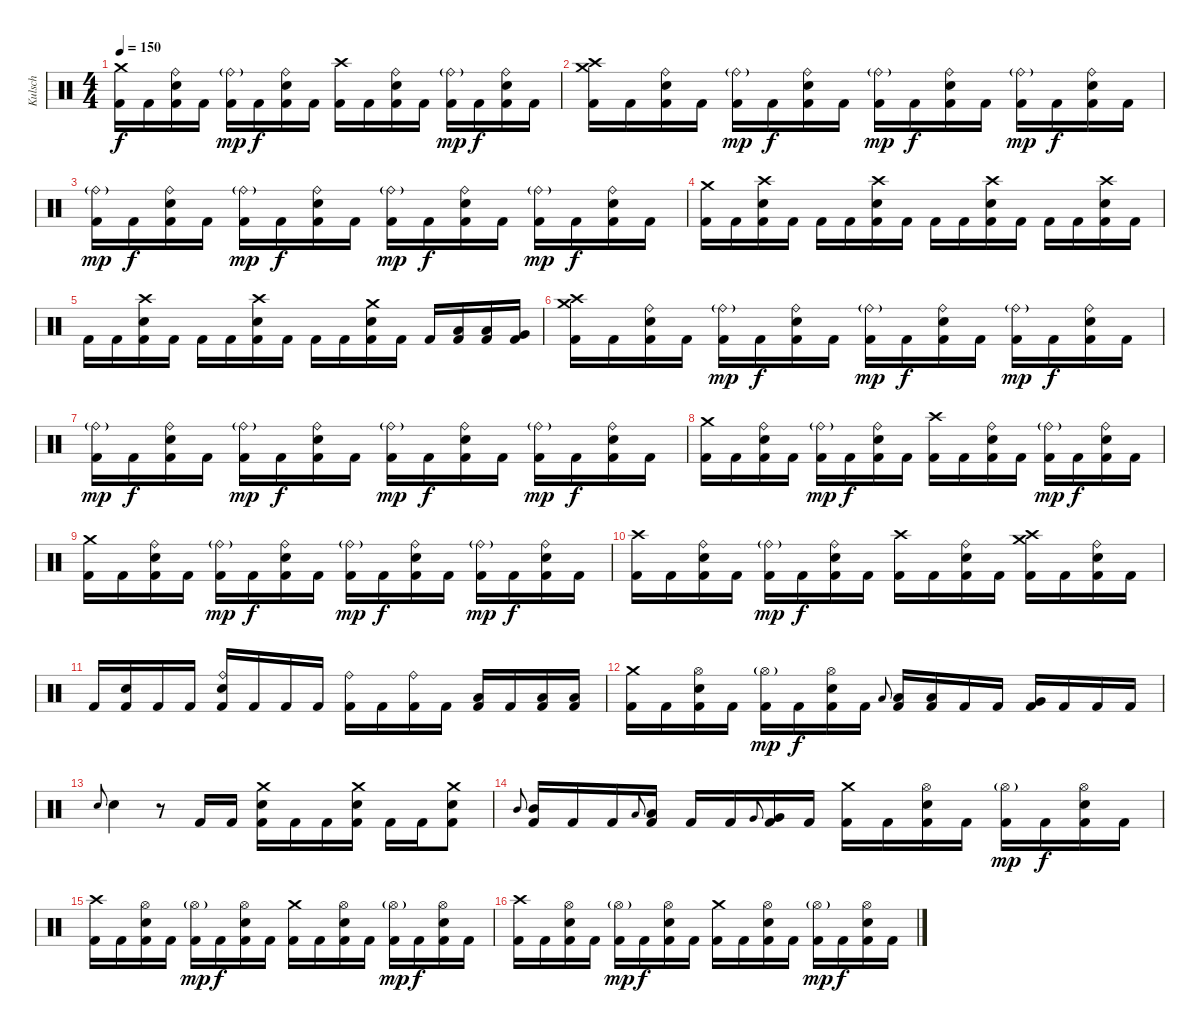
\track ("Kulsch" "Kulsch") {instrument percussion}
\staff {score}
\articulation defaults
\ts (4 4)
\tempo 150
\clef neutral
\ks c
("Crash medium (hit)" "Kick (hit) 2").16{dy f} "Kick (hit) 2".16 ("Ride (bell)" "Snare (hit) 2" "Kick (hit) 2").16 "Kick (hit) 2".16 ("Ride (bell)"{g} "Kick (hit) 2").16{dy mp} "Kick (hit) 2".16{dy f} ("Ride (bell)" "Snare (hit) 2" "Kick (hit) 2").16 "Kick (hit) 2".16 ("Crash high (hit)" "Kick (hit) 2").16 "Kick (hit) 2".16 ("Ride (bell)" "Snare (hit) 2" "Kick (hit) 2").16 "Kick (hit) 2".16 ("Ride (bell)"{g} "Kick (hit) 2").16{dy mp} "Kick (hit) 2".16{dy f} ("Ride (bell)" "Snare (hit) 2" "Kick (hit) 2").16 "Kick (hit) 2".16 |
("Crash medium (hit)" "Crash high (hit)" "Kick (hit) 2").16 "Kick (hit) 2".16 ("Ride (bell)" "Snare (hit) 2" "Kick (hit) 2").16 "Kick (hit) 2".16 ("Ride (bell)"{g} "Kick (hit) 2").16{dy mp} "Kick (hit) 2".16{dy f} ("Ride (bell)" "Snare (hit) 2" "Kick (hit) 2").16 "Kick (hit) 2".16 ("Ride (bell)"{g} "Kick (hit) 2").16{dy mp} "Kick (hit) 2".16{dy f} ("Ride (bell)" "Snare (hit) 2" "Kick (hit) 2").16 "Kick (hit) 2".16 ("Ride (bell)"{g} "Kick (hit) 2").16{dy mp} "Kick (hit) 2".16{dy f} ("Ride (bell)" "Snare (hit) 2" "Kick (hit) 2").16 "Kick (hit) 2".16 |
("Ride (bell)"{g} "Kick (hit) 2").16{dy mp} "Kick (hit) 2".16{dy f} ("Ride (bell)" "Snare (hit) 2" "Kick (hit) 2").16 "Kick (hit) 2".16 ("Ride (bell)"{g} "Kick (hit) 2").16{dy mp} "Kick (hit) 2".16{dy f} ("Ride (bell)" "Snare (hit) 2" "Kick (hit) 2").16 "Kick (hit) 2".16 ("Ride (bell)"{g} "Kick (hit) 2").16{dy mp} "Kick (hit) 2".16{dy f} ("Ride (bell)" "Snare (hit) 2" "Kick (hit) 2").16 "Kick (hit) 2".16 ("Ride (bell)"{g} "Kick (hit) 2").16{dy mp} "Kick (hit) 2".16{dy f} ("Ride (bell)" "Snare (hit) 2" "Kick (hit) 2").16 "Kick (hit) 2".16 |
("Crash medium (hit)" "Kick (hit) 2").16 "Kick (hit) 2".16 ("Crash high (hit)" "Snare (hit) 2" "Kick (hit) 2").16 "Kick (hit) 2".16 "Kick (hit) 2".16 "Kick (hit) 2".16 ("Crash high (hit)" "Snare (hit) 2" "Kick (hit) 2").16 "Kick (hit) 2".16 "Kick (hit) 2".16 "Kick (hit) 2".16 ("Crash high (hit)" "Snare (hit) 2" "Kick (hit) 2").16 "Kick (hit) 2".16 "Kick (hit) 2".16 "Kick (hit) 2".16 ("Crash high (hit)" "Snare (hit) 2" "Kick (hit) 2").16 "Kick (hit) 2".16 |
"Kick (hit) 2".16 "Kick (hit) 2".16 ("Crash high (hit)" "Snare (hit) 2" "Kick (hit) 2").16 "Kick (hit) 2".16 "Kick (hit) 2".16 "Kick (hit) 2".16 ("Crash high (hit)" "Snare (hit) 2" "Kick (hit) 2").16 "Kick (hit) 2".16 "Kick (hit) 2".16 "Kick (hit) 2".16 ("Crash medium (hit)" "Snare (hit) 2" "Kick (hit) 2").16 "Kick (hit) 2".16 "Kick (hit) 2".16 ("Low Tom (hit)" "Kick (hit) 2").16 ("Low Tom (hit)" "Kick (hit) 2").16 ("Very Low Tom (hit)" "Kick (hit) 2").16 |
("Crash medium (hit)" "Crash high (hit)" "Kick (hit) 2").16 "Kick (hit) 2".16 ("Ride (bell)" "Snare (hit) 2" "Kick (hit) 2").16 "Kick (hit) 2".16 ("Ride (bell)"{g} "Kick (hit) 2").16{dy mp} "Kick (hit) 2".16{dy f} ("Ride (bell)" "Snare (hit) 2" "Kick (hit) 2").16 "Kick (hit) 2".16 ("Ride (bell)"{g} "Kick (hit) 2").16{dy mp} "Kick (hit) 2".16{dy f} ("Ride (bell)" "Snare (hit) 2" "Kick (hit) 2").16 "Kick (hit) 2".16 ("Ride (bell)"{g} "Kick (hit) 2").16{dy mp} "Kick (hit) 2".16{dy f} ("Ride (bell)" "Snare (hit) 2" "Kick (hit) 2").16 "Kick (hit) 2".16 |
("Ride (bell)"{g} "Kick (hit) 2").16{dy mp} "Kick (hit) 2".16{dy f} ("Ride (bell)" "Snare (hit) 2" "Kick (hit) 2").16 "Kick (hit) 2".16 ("Ride (bell)"{g} "Kick (hit) 2").16{dy mp} "Kick (hit) 2".16{dy f} ("Ride (bell)" "Snare (hit) 2" "Kick (hit) 2").16 "Kick (hit) 2".16 ("Ride (bell)"{g} "Kick (hit) 2").16{dy mp} "Kick (hit) 2".16{dy f} ("Ride (bell)" "Snare (hit) 2" "Kick (hit) 2").16 "Kick (hit) 2".16 ("Ride (bell)"{g} "Kick (hit) 2").16{dy mp} "Kick (hit) 2".16{dy f} ("Ride (bell)" "Snare (hit) 2" "Kick (hit) 2").16 "Kick (hit) 2".16 |
("Crash medium (hit)" "Kick (hit) 2").16 "Kick (hit) 2".16 ("Ride (bell)" "Snare (hit) 2" "Kick (hit) 2").16 "Kick (hit) 2".16 ("Ride (bell)"{g} "Kick (hit) 2").16{dy mp} "Kick (hit) 2".16{dy f} ("Ride (bell)" "Snare (hit) 2" "Kick (hit) 2").16 "Kick (hit) 2".16 ("Crash high (hit)" "Kick (hit) 2").16 "Kick (hit) 2".16 ("Ride (bell)" "Snare (hit) 2" "Kick (hit) 2").16 "Kick (hit) 2".16 ("Ride (bell)"{g} "Kick (hit) 2").16{dy mp} "Kick (hit) 2".16{dy f} ("Ride (bell)" "Snare (hit) 2" "Kick (hit) 2").16 "Kick (hit) 2".16 |
("Crash medium (hit)" "Kick (hit) 2").16 "Kick (hit) 2".16 ("Ride (bell)" "Snare (hit) 2" "Kick (hit) 2").16 "Kick (hit) 2".16 ("Ride (bell)"{g} "Kick (hit) 2").16{dy mp} "Kick (hit) 2".16{dy f} ("Ride (bell)" "Snare (hit) 2" "Kick (hit) 2").16 "Kick (hit) 2".16 ("Ride (bell)"{g} "Kick (hit) 2").16{dy mp} "Kick (hit) 2".16{dy f} ("Ride (bell)" "Snare (hit) 2" "Kick (hit) 2").16 "Kick (hit) 2".16 ("Ride (bell)"{g} "Kick (hit) 2").16{dy mp} "Kick (hit) 2".16{dy f} ("Ride (bell)" "Snare (hit) 2" "Kick (hit) 2").16 "Kick (hit) 2".16 |
("Crash high (hit)" "Kick (hit) 2").16 "Kick (hit) 2".16 ("Ride (bell)" "Snare (hit) 2" "Kick (hit) 2").16 "Kick (hit) 2".16 ("Ride (bell)"{g} "Kick (hit) 2").16{dy mp} "Kick (hit) 2".16{dy f} ("Ride (bell)" "Snare (hit) 2" "Kick (hit) 2").16 "Kick (hit) 2".16 ("Crash high (hit)" "Kick (hit) 2").16 "Kick (hit) 2".16 ("Ride (bell)" "Snare (hit) 2" "Kick (hit) 2").16 "Kick (hit) 2".16 ("Crash medium (hit)" "Crash high (hit)" "Kick (hit) 2").16 "Kick (hit) 2".16 ("Ride (bell)" "Snare (hit) 2" "Kick (hit) 2").16 "Kick (hit) 2".16 |
"Kick (hit) 2".16 ("Snare (hit) 2" "Kick (hit) 2").16 "Kick (hit) 2".16 "Kick (hit) 2".16 ("Ride (bell)" "Snare (hit) 2" "Kick (hit) 2").16 "Kick (hit) 2".16 "Kick (hit) 2".16 "Kick (hit) 2".16 ("Ride (bell)" "Kick (hit) 2").16 "Kick (hit) 2".16 ("Ride (bell)" "Kick (hit) 2").16 "Kick (hit) 2".16 ("Low Tom (hit)" "Kick (hit) 2").16 "Kick (hit) 2".16 ("Low Tom (hit)" "Kick (hit) 2").16 ("Low Tom (hit)" "Kick (hit) 2").16 |
("Crash medium (hit)" "Kick (hit) 2").16 "Kick (hit) 2".16 ("Hi-Hat (open)" "Snare (hit) 2" "Kick (hit) 2").16 "Kick (hit) 2".16 ("Hi-Hat (open)"{g} "Kick (hit) 2").16{dy mp} "Kick (hit) 2".16{dy f} ("Hi-Hat (open)" "Snare (hit) 2" "Kick (hit) 2").16 "Kick (hit) 2".16 "Low Tom (hit)".8{gr onbeat} ("Low Tom (hit)" "Kick (hit) 2").16 ("Low Tom (hit)" "Kick (hit) 2").16 "Kick (hit) 2".16 "Kick (hit) 2".16 ("Very Low Tom (hit)" "Kick (hit) 2").16 "Kick (hit) 2".16 "Kick (hit) 2".16 "Kick (hit) 2".16 |
"Snare (hit) 2".8{gr onbeat} "Snare (hit) 2".4 r.8 "Kick (hit) 2".16 "Kick (hit) 2".16 ("Crash medium (hit)" "Snare (hit) 2" "Kick (hit) 2").16 "Kick (hit) 2".16 "Kick (hit) 2".16 ("Crash medium (hit)" "Snare (hit) 2" "Kick (hit) 2").16 "Kick (hit) 2".16 "Kick (hit) 2".16 ("Crash medium (hit)" "Snare (hit) 2" "Kick (hit) 2").8 |
"Mid Tom (hit)".8{gr onbeat} ("Mid Tom (hit)" "Kick (hit) 2").16 "Kick (hit) 2".16 "Kick (hit) 2".16 "Low Tom (hit)".8{gr onbeat} ("Low Tom (hit)" "Kick (hit) 2").16 "Kick (hit) 2".16 "Kick (hit) 2".16 "Very Low Tom (hit)".8{gr onbeat} ("Very Low Tom (hit)" "Kick (hit) 2").16 "Kick (hit) 2".16 ("Crash medium (hit)" "Kick (hit) 2").16 "Kick (hit) 2".16 ("Hi-Hat (open)" "Snare (hit) 2" "Kick (hit) 2").16 "Kick (hit) 2".16 ("Hi-Hat (open)"{g} "Kick (hit) 2").16{dy mp} "Kick (hit) 2".16{dy f} ("Hi-Hat (open)" "Snare (hit) 2" "Kick (hit) 2").16 "Kick (hit) 2".16 |
("Crash high (hit)" "Kick (hit) 2").16 "Kick (hit) 2".16 ("Hi-Hat (open)" "Snare (hit) 2" "Kick (hit) 2").16 "Kick (hit) 2".16 ("Hi-Hat (open)"{g} "Kick (hit) 2").16{dy mp} "Kick (hit) 2".16{dy f} ("Hi-Hat (open)" "Snare (hit) 2" "Kick (hit) 2").16 "Kick (hit) 2".16 ("Crash medium (hit)" "Kick (hit) 2").16 "Kick (hit) 2".16 ("Hi-Hat (open)" "Snare (hit) 2" "Kick (hit) 2").16 "Kick (hit) 2".16 ("Hi-Hat (open)"{g} "Kick (hit) 2").16{dy mp} "Kick (hit) 2".16{dy f} ("Hi-Hat (open)" "Snare (hit) 2" "Kick (hit) 2").16 "Kick (hit) 2".16 |
("Crash high (hit)" "Kick (hit) 2").16 "Kick (hit) 2".16 ("Hi-Hat (open)" "Snare (hit) 2" "Kick (hit) 2").16 "Kick (hit) 2".16 ("Hi-Hat (open)"{g} "Kick (hit) 2").16{dy mp} "Kick (hit) 2".16{dy f} ("Hi-Hat (open)" "Snare (hit) 2" "Kick (hit) 2").16 "Kick (hit) 2".16 ("Crash medium (hit)" "Kick (hit) 2").16 "Kick (hit) 2".16 ("Hi-Hat (open)" "Snare (hit) 2" "Kick (hit) 2").16 "Kick (hit) 2".16 ("Hi-Hat (open)"{g} "Kick (hit) 2").16{dy mp} "Kick (hit) 2".16{dy f} ("Hi-Hat (open)" "Snare (hit) 2" "Kick (hit) 2").16 "Kick (hit) 2".16
